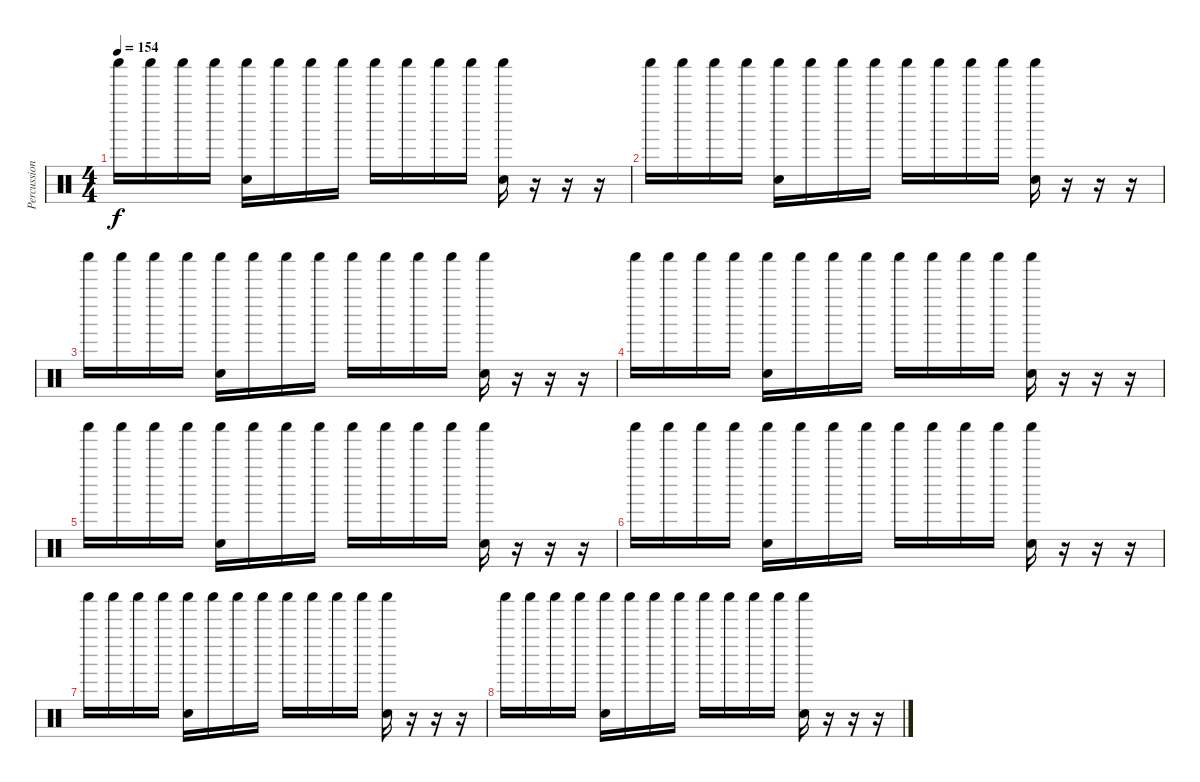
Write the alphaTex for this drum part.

\track ("Percussion" "Percussion") {instrument percussion}
\staff {score}
\articulation defaults
\ts (4 4)
\tempo 154
\clef neutral
\ks c "Shaker (hit)".16{dy f} "Shaker (hit)".16 "Shaker (hit)".16 "Shaker (hit)".16
("Shaker (hit)" "Snare (hit) 2").16 "Shaker (hit)".16 "Shaker (hit)".16 "Shaker (hit)".16 "Shaker (hit)".16 "Shaker (hit)".16 "Shaker (hit)".16 "Shaker (hit)".16 ("Shaker (hit)" "Snare (hit) 2").16 r.16 r.16 r.16 |
"Shaker (hit)".16 "Shaker (hit)".16 "Shaker (hit)".16 "Shaker (hit)".16 ("Shaker (hit)" "Snare (hit) 2").16 "Shaker (hit)".16 "Shaker (hit)".16 "Shaker (hit)".16 "Shaker (hit)".16 "Shaker (hit)".16 "Shaker (hit)".16 "Shaker (hit)".16 ("Shaker (hit)" "Snare (hit) 2").16 r.16 r.16 r.16 |
"Shaker (hit)".16 "Shaker (hit)".16 "Shaker (hit)".16 "Shaker (hit)".16 ("Shaker (hit)" "Snare (hit) 2").16 "Shaker (hit)".16 "Shaker (hit)".16 "Shaker (hit)".16 "Shaker (hit)".16 "Shaker (hit)".16 "Shaker (hit)".16 "Shaker (hit)".16 ("Shaker (hit)" "Snare (hit) 2").16 r.16 r.16 r.16 |
"Shaker (hit)".16 "Shaker (hit)".16 "Shaker (hit)".16 "Shaker (hit)".16 ("Shaker (hit)" "Snare (hit) 2").16 "Shaker (hit)".16 "Shaker (hit)".16 "Shaker (hit)".16 "Shaker (hit)".16 "Shaker (hit)".16 "Shaker (hit)".16 "Shaker (hit)".16 ("Shaker (hit)" "Snare (hit) 2").16 r.16 r.16 r.16 |
"Shaker (hit)".16 "Shaker (hit)".16 "Shaker (hit)".16 "Shaker (hit)".16 ("Shaker (hit)" "Snare (hit) 2").16 "Shaker (hit)".16 "Shaker (hit)".16 "Shaker (hit)".16 "Shaker (hit)".16 "Shaker (hit)".16 "Shaker (hit)".16 "Shaker (hit)".16 ("Shaker (hit)" "Snare (hit) 2").16 r.16 r.16 r.16 |
"Shaker (hit)".16 "Shaker (hit)".16 "Shaker (hit)".16 "Shaker (hit)".16 ("Shaker (hit)" "Snare (hit) 2").16 "Shaker (hit)".16 "Shaker (hit)".16 "Shaker (hit)".16 "Shaker (hit)".16 "Shaker (hit)".16 "Shaker (hit)".16 "Shaker (hit)".16 ("Shaker (hit)" "Snare (hit) 2").16 r.16 r.16 r.16 |
"Shaker (hit)".16 "Shaker (hit)".16 "Shaker (hit)".16 "Shaker (hit)".16 ("Shaker (hit)" "Snare (hit) 2").16 "Shaker (hit)".16 "Shaker (hit)".16 "Shaker (hit)".16 "Shaker (hit)".16 "Shaker (hit)".16 "Shaker (hit)".16 "Shaker (hit)".16 ("Shaker (hit)" "Snare (hit) 2").16 r.16 r.16 r.16 |
"Shaker (hit)".16 "Shaker (hit)".16 "Shaker (hit)".16 "Shaker (hit)".16 ("Shaker (hit)" "Snare (hit) 2").16 "Shaker (hit)".16 "Shaker (hit)".16 "Shaker (hit)".16 "Shaker (hit)".16 "Shaker (hit)".16 "Shaker (hit)".16 "Shaker (hit)".16 ("Shaker (hit)" "Snare (hit) 2").16 r.16 r.16 r.16
